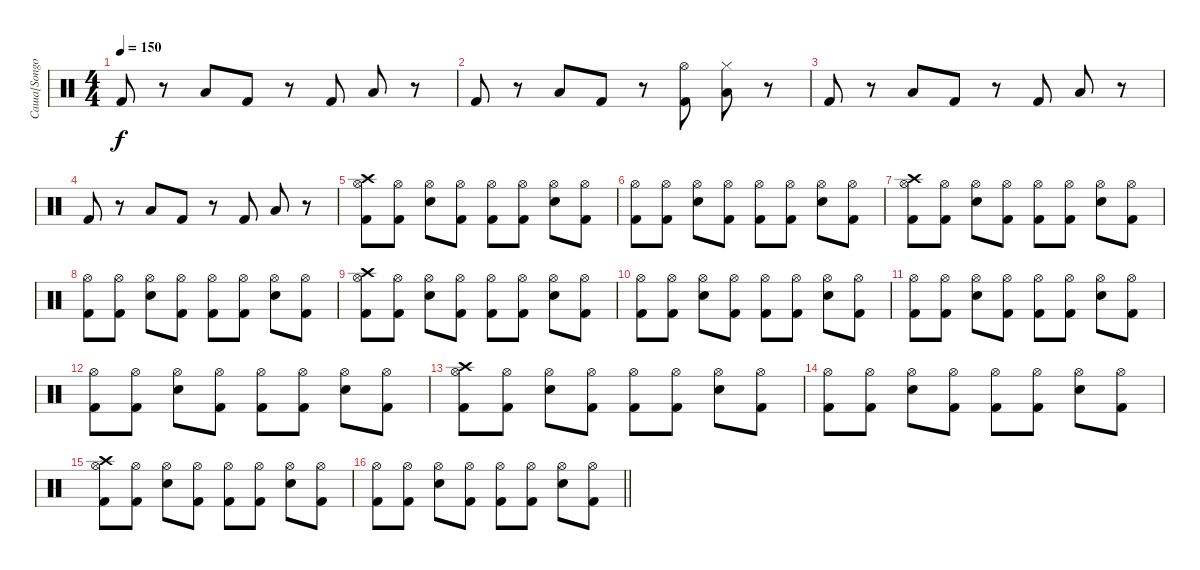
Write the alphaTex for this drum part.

\track ("Саша[Songo]" "Саша[Songo") {instrument percussion}
\staff {score}
\articulation defaults
\ts (4 4)
\tempo 150
\clef neutral
\ks c "Kick (hit) 2".8{dy f}
r.8 "Low Floor Tom (hit)".8 "Kick (hit) 2".8 r.8 "Kick (hit) 2".8 "Low Floor Tom (hit)".8 r.8 |
"Kick (hit) 2".8 r.8 "Low Floor Tom (hit)".8 "Kick (hit) 2".8 r.8 ("Hi-Hat (open)" "Kick (hit) 2").8 ("Hi-Hat (closed)" "Low Floor Tom (hit)").8 r.8 |
"Kick (hit) 2".8 r.8 "Low Floor Tom (hit)".8 "Kick (hit) 2".8 r.8 "Kick (hit) 2".8 "Low Floor Tom (hit)".8 r.8 |
"Kick (hit) 2".8 r.8 "Low Floor Tom (hit)".8 "Kick (hit) 2".8 r.8 "Kick (hit) 2".8 "Low Floor Tom (hit)".8 r.8 |
("Crash high (hit)" "Hi-Hat (open)" "Kick (hit) 2").8 ("Hi-Hat (open)" "Kick (hit) 2").8 ("Hi-Hat (open)" "Snare (hit) 2").8 ("Hi-Hat (open)" "Kick (hit) 2").8 ("Hi-Hat (open)" "Kick (hit) 2").8 ("Hi-Hat (open)" "Kick (hit) 2").8 ("Hi-Hat (open)" "Snare (hit) 2").8 ("Hi-Hat (open)" "Kick (hit) 2").8 |
("Hi-Hat (open)" "Kick (hit) 2").8 ("Hi-Hat (open)" "Kick (hit) 2").8 ("Hi-Hat (open)" "Snare (hit) 2").8 ("Hi-Hat (open)" "Kick (hit) 2").8 ("Hi-Hat (open)" "Kick (hit) 2").8 ("Hi-Hat (open)" "Kick (hit) 2").8 ("Hi-Hat (open)" "Snare (hit) 2").8 ("Hi-Hat (open)" "Kick (hit) 2").8 |
("Crash high (hit)" "Hi-Hat (open)" "Kick (hit) 2").8 ("Hi-Hat (open)" "Kick (hit) 2").8 ("Hi-Hat (open)" "Snare (hit) 2").8 ("Hi-Hat (open)" "Kick (hit) 2").8 ("Hi-Hat (open)" "Kick (hit) 2").8 ("Hi-Hat (open)" "Kick (hit) 2").8 ("Hi-Hat (open)" "Snare (hit) 2").8 ("Hi-Hat (open)" "Kick (hit) 2").8 |
("Hi-Hat (open)" "Kick (hit) 2").8 ("Hi-Hat (open)" "Kick (hit) 2").8 ("Hi-Hat (open)" "Snare (hit) 2").8 ("Hi-Hat (open)" "Kick (hit) 2").8 ("Hi-Hat (open)" "Kick (hit) 2").8 ("Hi-Hat (open)" "Kick (hit) 2").8 ("Hi-Hat (open)" "Snare (hit) 2").8 ("Hi-Hat (open)" "Kick (hit) 2").8 |
("Crash high (hit)" "Hi-Hat (open)" "Kick (hit) 2").8 ("Hi-Hat (open)" "Kick (hit) 2").8 ("Hi-Hat (open)" "Snare (hit) 2").8 ("Hi-Hat (open)" "Kick (hit) 2").8 ("Hi-Hat (open)" "Kick (hit) 2").8 ("Hi-Hat (open)" "Kick (hit) 2").8 ("Hi-Hat (open)" "Snare (hit) 2").8 ("Hi-Hat (open)" "Kick (hit) 2").8 |
("Hi-Hat (open)" "Kick (hit) 2").8 ("Hi-Hat (open)" "Kick (hit) 2").8 ("Hi-Hat (open)" "Snare (hit) 2").8 ("Hi-Hat (open)" "Kick (hit) 2").8 ("Hi-Hat (open)" "Kick (hit) 2").8 ("Hi-Hat (open)" "Kick (hit) 2").8 ("Hi-Hat (open)" "Snare (hit) 2").8 ("Hi-Hat (open)" "Kick (hit) 2").8 |
("Hi-Hat (open)" "Kick (hit) 2").8 ("Hi-Hat (open)" "Kick (hit) 2").8 ("Hi-Hat (open)" "Snare (hit) 2").8 ("Hi-Hat (open)" "Kick (hit) 2").8 ("Hi-Hat (open)" "Kick (hit) 2").8 ("Hi-Hat (open)" "Kick (hit) 2").8 ("Hi-Hat (open)" "Snare (hit) 2").8 ("Hi-Hat (open)" "Kick (hit) 2").8 |
("Hi-Hat (open)" "Kick (hit) 2").8 ("Hi-Hat (open)" "Kick (hit) 2").8 ("Hi-Hat (open)" "Snare (hit) 2").8 ("Hi-Hat (open)" "Kick (hit) 2").8 ("Hi-Hat (open)" "Kick (hit) 2").8 ("Hi-Hat (open)" "Kick (hit) 2").8 ("Hi-Hat (open)" "Snare (hit) 2").8 ("Hi-Hat (open)" "Kick (hit) 2").8 |
("Crash high (hit)" "Hi-Hat (open)" "Kick (hit) 2").8 ("Hi-Hat (open)" "Kick (hit) 2").8 ("Hi-Hat (open)" "Snare (hit) 2").8 ("Hi-Hat (open)" "Kick (hit) 2").8 ("Hi-Hat (open)" "Kick (hit) 2").8 ("Hi-Hat (open)" "Kick (hit) 2").8 ("Hi-Hat (open)" "Snare (hit) 2").8 ("Hi-Hat (open)" "Kick (hit) 2").8 |
("Hi-Hat (open)" "Kick (hit) 2").8 ("Hi-Hat (open)" "Kick (hit) 2").8 ("Hi-Hat (open)" "Snare (hit) 2").8 ("Hi-Hat (open)" "Kick (hit) 2").8 ("Hi-Hat (open)" "Kick (hit) 2").8 ("Hi-Hat (open)" "Kick (hit) 2").8 ("Hi-Hat (open)" "Snare (hit) 2").8 ("Hi-Hat (open)" "Kick (hit) 2").8 |
("Crash high (hit)" "Hi-Hat (open)" "Kick (hit) 2").8 ("Hi-Hat (open)" "Kick (hit) 2").8 ("Hi-Hat (open)" "Snare (hit) 2").8 ("Hi-Hat (open)" "Kick (hit) 2").8 ("Hi-Hat (open)" "Kick (hit) 2").8 ("Hi-Hat (open)" "Kick (hit) 2").8 ("Hi-Hat (open)" "Snare (hit) 2").8 ("Hi-Hat (open)" "Kick (hit) 2").8 |
\barLineRight lightlight
("Hi-Hat (open)" "Kick (hit) 2").8 ("Hi-Hat (open)" "Kick (hit) 2").8 ("Hi-Hat (open)" "Snare (hit) 2").8 ("Hi-Hat (open)" "Kick (hit) 2").8 ("Hi-Hat (open)" "Kick (hit) 2").8 ("Hi-Hat (open)" "Kick (hit) 2").8 ("Hi-Hat (open)" "Snare (hit) 2").8 ("Hi-Hat (open)" "Kick (hit) 2").8
